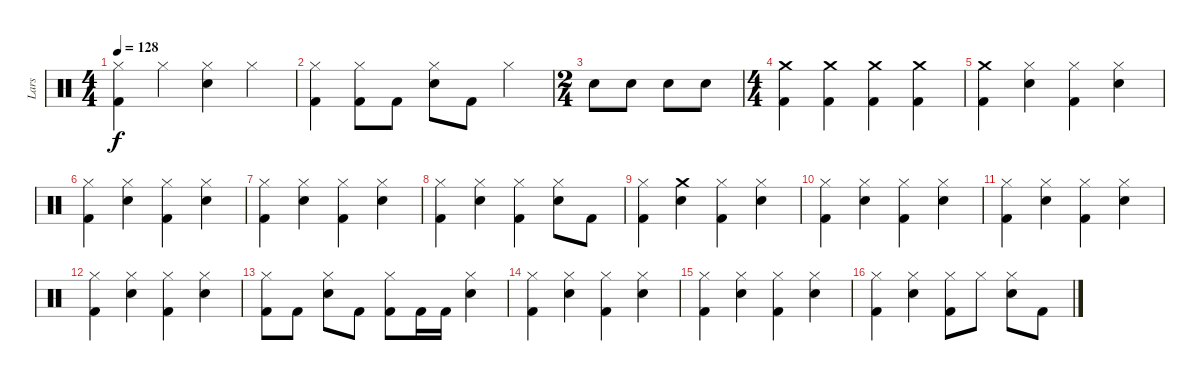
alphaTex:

\track ("Lars" "Lars") {instrument percussion}
\staff {score}
\articulation defaults
\ts (4 4)
\tempo 128
\clef neutral
\ks c
("Kick (hit) 2" "Hi-Hat (closed)").4{dy f} "Hi-Hat (closed)".4 ("Snare (hit) 2" "Hi-Hat (closed)").4 "Hi-Hat (closed)".4 |
("Kick (hit) 2" "Hi-Hat (closed)").4 ("Kick (hit) 2" "Hi-Hat (closed)").8 "Kick (hit) 2".8 ("Snare (hit) 2" "Hi-Hat (closed)").8 "Kick (hit) 2".8 "Hi-Hat (closed)".4 |
\ts (2 4)
"Snare (hit) 2".8 "Snare (hit) 2".8 "Snare (hit) 2".8 "Snare (hit) 2".8 |
\ts (4 4)
("Kick (hit) 2" "Crash medium (hit)").4 ("Kick (hit) 2" "Crash medium (hit)").4 ("Kick (hit) 2" "Crash medium (hit)").4 ("Kick (hit) 2" "Crash medium (hit)").4 |
("Kick (hit) 2" "Crash medium (hit)").4 ("Hi-Hat (closed)" "Snare (hit) 2").4 ("Kick (hit) 2" "Hi-Hat (closed)").4 ("Hi-Hat (closed)" "Snare (hit) 2").4 |
("Kick (hit) 2" "Hi-Hat (closed)").4 ("Hi-Hat (closed)" "Snare (hit) 2").4 ("Kick (hit) 2" "Hi-Hat (closed)").4 ("Hi-Hat (closed)" "Snare (hit) 2").4 |
("Kick (hit) 2" "Hi-Hat (closed)").4 ("Snare (hit) 2" "Hi-Hat (closed)").4 ("Kick (hit) 2" "Hi-Hat (closed)").4 ("Snare (hit) 2" "Hi-Hat (closed)").4 |
("Kick (hit) 2" "Hi-Hat (closed)").4 ("Snare (hit) 2" "Hi-Hat (closed)").4 ("Kick (hit) 2" "Hi-Hat (closed)").4 ("Snare (hit) 2" "Hi-Hat (closed)").8 "Kick (hit) 2".8 |
("Hi-Hat (closed)" "Kick (hit) 2").4 ("Crash medium (hit)" "Snare (hit) 2").4 ("Hi-Hat (closed)" "Kick (hit) 2").4 ("Snare (hit) 2" "Hi-Hat (closed)").4 |
("Kick (hit) 2" "Hi-Hat (closed)").4 ("Snare (hit) 2" "Hi-Hat (closed)").4 ("Kick (hit) 2" "Hi-Hat (closed)").4 ("Snare (hit) 2" "Hi-Hat (closed)").4 |
("Kick (hit) 2" "Hi-Hat (closed)").4 ("Snare (hit) 2" "Hi-Hat (closed)").4 ("Kick (hit) 2" "Hi-Hat (closed)").4 ("Snare (hit) 2" "Hi-Hat (closed)").4 |
("Kick (hit) 2" "Hi-Hat (closed)").4 ("Snare (hit) 2" "Hi-Hat (closed)").4 ("Kick (hit) 2" "Hi-Hat (closed)").4 ("Snare (hit) 2" "Hi-Hat (closed)").4 |
("Kick (hit) 2" "Hi-Hat (closed)").8 "Kick (hit) 2".8 ("Snare (hit) 2" "Hi-Hat (closed)").8 "Kick (hit) 2".8 ("Kick (hit) 2" "Hi-Hat (closed)").8 "Kick (hit) 2".16 "Kick (hit) 2".16 ("Snare (hit) 2" "Hi-Hat (closed)").4 |
("Kick (hit) 2" "Hi-Hat (closed)").4 ("Snare (hit) 2" "Hi-Hat (closed)").4 ("Kick (hit) 2" "Hi-Hat (closed)").4 ("Snare (hit) 2" "Hi-Hat (closed)").4 |
("Kick (hit) 2" "Hi-Hat (closed)").4 ("Snare (hit) 2" "Hi-Hat (closed)").4 ("Kick (hit) 2" "Hi-Hat (closed)").4 ("Snare (hit) 2" "Hi-Hat (closed)").4 |
("Kick (hit) 2" "Hi-Hat (closed)").4 ("Snare (hit) 2" "Hi-Hat (closed)").4 ("Hi-Hat (closed)" "Kick (hit) 2").8 "Hi-Hat (closed)".8 ("Snare (hit) 2" "Hi-Hat (closed)").8 "Kick (hit) 2".8
